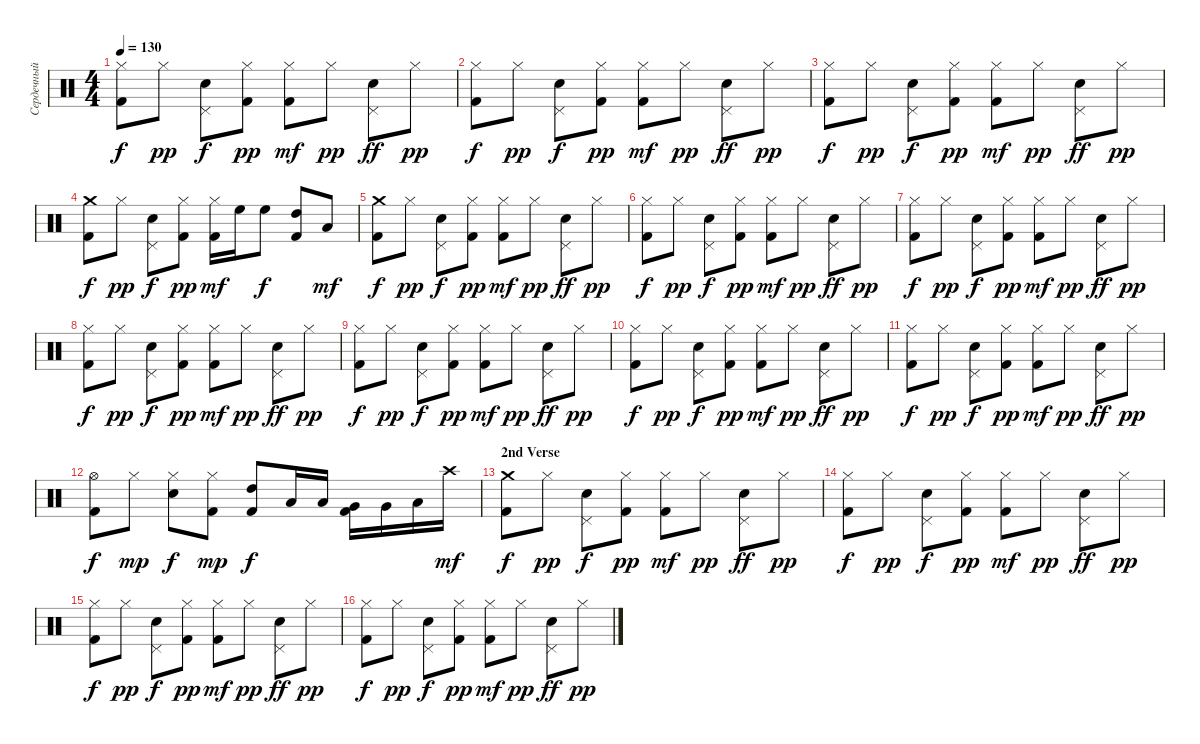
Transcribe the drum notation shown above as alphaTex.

\track ("Сердечный (Ударные)" "Сердечный ") {instrument percussion}
\staff {score}
\articulation defaults
\ts (4 4)
\tempo 130
\clef neutral
\ks c
("Hi-Hat (closed)" "Kick (hit) 2").8{dy f} "Hi-Hat (closed)".8{dy pp} ("Pedal Hi-Hat (hit)" "Electric Snare (hit)").8{dy f} ("Hi-Hat (closed)" "Kick (hit) 2").8{dy pp} ("Hi-Hat (closed)" "Kick (hit) 2").8{dy mf} "Hi-Hat (closed)".8{dy pp} ("Pedal Hi-Hat (hit)" "Electric Snare (hit)").8{dy ff} "Hi-Hat (closed)".8{dy pp} |
("Hi-Hat (closed)" "Kick (hit) 2").8{dy f} "Hi-Hat (closed)".8{dy pp} ("Pedal Hi-Hat (hit)" "Electric Snare (hit)").8{dy f} ("Hi-Hat (closed)" "Kick (hit) 2").8{dy pp} ("Hi-Hat (closed)" "Kick (hit) 2").8{dy mf} "Hi-Hat (closed)".8{dy pp} ("Pedal Hi-Hat (hit)" "Electric Snare (hit)").8{dy ff} "Hi-Hat (closed)".8{dy pp} |
("Hi-Hat (closed)" "Kick (hit) 2").8{dy f} "Hi-Hat (closed)".8{dy pp} ("Pedal Hi-Hat (hit)" "Electric Snare (hit)").8{dy f} ("Hi-Hat (closed)" "Kick (hit) 2").8{dy pp} ("Hi-Hat (closed)" "Kick (hit) 2").8{dy mf} "Hi-Hat (closed)".8{dy pp} ("Pedal Hi-Hat (hit)" "Electric Snare (hit)").8{dy ff} "Hi-Hat (closed)".8{dy pp} |
("Kick (hit) 2" "Crash medium (hit)").8{dy f} "Hi-Hat (closed)".8{dy pp} ("Pedal Hi-Hat (hit)" "Electric Snare (hit)").8{dy f} ("Hi-Hat (closed)" "Kick (hit) 2").8{dy pp} ("Hi-Hat (closed)" "Kick (hit) 2").16{dy mf} "High Floor Tom (hit)".16 "High Floor Tom (hit)".8{dy f} ("Kick (hit) 2" "High Tom (hit)").8 "Low Tom (hit)".8{dy mf} |
("Kick (hit) 2" "Crash medium (hit)").8{dy f} "Hi-Hat (closed)".8{dy pp} ("Pedal Hi-Hat (hit)" "Electric Snare (hit)").8{dy f} ("Hi-Hat (closed)" "Kick (hit) 2").8{dy pp} ("Hi-Hat (closed)" "Kick (hit) 2").8{dy mf} "Hi-Hat (closed)".8{dy pp} ("Pedal Hi-Hat (hit)" "Electric Snare (hit)").8{dy ff} "Hi-Hat (closed)".8{dy pp} |
("Hi-Hat (closed)" "Kick (hit) 2").8{dy f} "Hi-Hat (closed)".8{dy pp} ("Pedal Hi-Hat (hit)" "Electric Snare (hit)").8{dy f} ("Hi-Hat (closed)" "Kick (hit) 2").8{dy pp} ("Hi-Hat (closed)" "Kick (hit) 2").8{dy mf} "Hi-Hat (closed)".8{dy pp} ("Pedal Hi-Hat (hit)" "Electric Snare (hit)").8{dy ff} "Hi-Hat (closed)".8{dy pp} |
("Hi-Hat (closed)" "Kick (hit) 2").8{dy f} "Hi-Hat (closed)".8{dy pp} ("Pedal Hi-Hat (hit)" "Electric Snare (hit)").8{dy f} ("Hi-Hat (closed)" "Kick (hit) 2").8{dy pp} ("Hi-Hat (closed)" "Kick (hit) 2").8{dy mf} "Hi-Hat (closed)".8{dy pp} ("Pedal Hi-Hat (hit)" "Electric Snare (hit)").8{dy ff} "Hi-Hat (closed)".8{dy pp} |
("Hi-Hat (closed)" "Kick (hit) 2").8{dy f} "Hi-Hat (closed)".8{dy pp} ("Pedal Hi-Hat (hit)" "Electric Snare (hit)").8{dy f} ("Hi-Hat (closed)" "Kick (hit) 2").8{dy pp} ("Hi-Hat (closed)" "Kick (hit) 2").8{dy mf} "Hi-Hat (closed)".8{dy pp} ("Pedal Hi-Hat (hit)" "Electric Snare (hit)").8{dy ff} "Hi-Hat (closed)".8{dy pp} |
("Hi-Hat (closed)" "Kick (hit) 2").8{dy f} "Hi-Hat (closed)".8{dy pp} ("Pedal Hi-Hat (hit)" "Electric Snare (hit)").8{dy f} ("Hi-Hat (closed)" "Kick (hit) 2").8{dy pp} ("Hi-Hat (closed)" "Kick (hit) 2").8{dy mf} "Hi-Hat (closed)".8{dy pp} ("Pedal Hi-Hat (hit)" "Electric Snare (hit)").8{dy ff} "Hi-Hat (closed)".8{dy pp} |
("Hi-Hat (closed)" "Kick (hit) 2").8{dy f} "Hi-Hat (closed)".8{dy pp} ("Pedal Hi-Hat (hit)" "Electric Snare (hit)").8{dy f} ("Hi-Hat (closed)" "Kick (hit) 2").8{dy pp} ("Hi-Hat (closed)" "Kick (hit) 2").8{dy mf} "Hi-Hat (closed)".8{dy pp} ("Pedal Hi-Hat (hit)" "Electric Snare (hit)").8{dy ff} "Hi-Hat (closed)".8{dy pp} |
("Hi-Hat (closed)" "Kick (hit) 2").8{dy f} "Hi-Hat (closed)".8{dy pp} ("Pedal Hi-Hat (hit)" "Electric Snare (hit)").8{dy f} ("Hi-Hat (closed)" "Kick (hit) 2").8{dy pp} ("Hi-Hat (closed)" "Kick (hit) 2").8{dy mf} "Hi-Hat (closed)".8{dy pp} ("Pedal Hi-Hat (hit)" "Electric Snare (hit)").8{dy ff} "Hi-Hat (closed)".8{dy pp} |
("Hi-Hat (open)" "Kick (hit) 2").8{dy f} "Hi-Hat (closed)".8{dy mp} ("Hi-Hat (closed)" "Electric Snare (hit)").8{dy f} ("Hi-Hat (closed)" "Kick (hit) 2").8{dy mp} ("Kick (hit) 2" "High Tom (hit)").8{dy f} "Low Tom (hit)".16 "Low Tom (hit)".16 ("Kick (hit) 2" "Very Low Tom (hit)").16 "Very Low Tom (hit)".16 "Low Floor Tom (hit)".16 "Crash high (hit)".16{dy mf} |
\section ("" "2nd Verse")
("Kick (hit) 2" "Crash medium (hit)").8{dy f} "Hi-Hat (closed)".8{dy pp} ("Pedal Hi-Hat (hit)" "Electric Snare (hit)").8{dy f} ("Hi-Hat (closed)" "Kick (hit) 2").8{dy pp} ("Hi-Hat (closed)" "Kick (hit) 2").8{dy mf} "Hi-Hat (closed)".8{dy pp} ("Pedal Hi-Hat (hit)" "Electric Snare (hit)").8{dy ff} "Hi-Hat (closed)".8{dy pp} |
("Hi-Hat (closed)" "Kick (hit) 2").8{dy f} "Hi-Hat (closed)".8{dy pp} ("Pedal Hi-Hat (hit)" "Electric Snare (hit)").8{dy f} ("Hi-Hat (closed)" "Kick (hit) 2").8{dy pp} ("Hi-Hat (closed)" "Kick (hit) 2").8{dy mf} "Hi-Hat (closed)".8{dy pp} ("Pedal Hi-Hat (hit)" "Electric Snare (hit)").8{dy ff} "Hi-Hat (closed)".8{dy pp} |
("Hi-Hat (closed)" "Kick (hit) 2").8{dy f} "Hi-Hat (closed)".8{dy pp} ("Pedal Hi-Hat (hit)" "Electric Snare (hit)").8{dy f} ("Hi-Hat (closed)" "Kick (hit) 2").8{dy pp} ("Hi-Hat (closed)" "Kick (hit) 2").8{dy mf} "Hi-Hat (closed)".8{dy pp} ("Pedal Hi-Hat (hit)" "Electric Snare (hit)").8{dy ff} "Hi-Hat (closed)".8{dy pp} |
("Hi-Hat (closed)" "Kick (hit) 2").8{dy f} "Hi-Hat (closed)".8{dy pp} ("Pedal Hi-Hat (hit)" "Electric Snare (hit)").8{dy f} ("Hi-Hat (closed)" "Kick (hit) 2").8{dy pp} ("Hi-Hat (closed)" "Kick (hit) 2").8{dy mf} "Hi-Hat (closed)".8{dy pp} ("Pedal Hi-Hat (hit)" "Electric Snare (hit)").8{dy ff} "Hi-Hat (closed)".8{dy pp}
